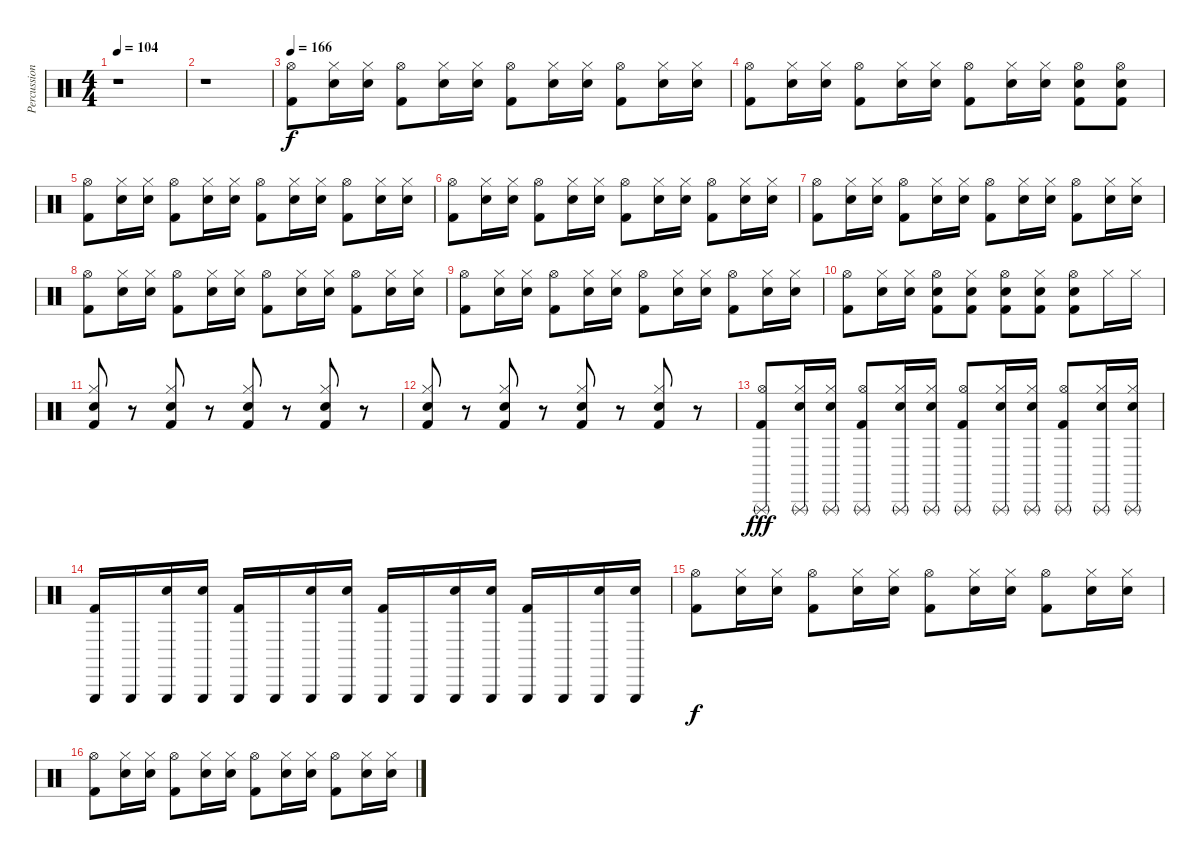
\track ("Percussion" "Percussion") {instrument percussion}
\staff {score}
\articulation defaults
\ts (4 4)
\tempo 104
\clef neutral
\ks c
r.1{dy f} |
r.1 |
\tempo 166
("Hi-Hat (open)" "Kick (hit) 2").8 ("Hi-Hat (closed)" "Snare (hit) 2").16 ("Hi-Hat (closed)" "Snare (hit) 2").16 ("Hi-Hat (open)" "Kick (hit) 2").8 ("Hi-Hat (closed)" "Snare (hit) 2").16 ("Hi-Hat (closed)" "Snare (hit) 2").16 ("Hi-Hat (open)" "Kick (hit) 2").8 ("Hi-Hat (closed)" "Snare (hit) 2").16 ("Hi-Hat (closed)" "Snare (hit) 2").16 ("Hi-Hat (open)" "Kick (hit) 2").8 ("Hi-Hat (closed)" "Snare (hit) 2").16 ("Hi-Hat (closed)" "Snare (hit) 2").16 |
("Hi-Hat (open)" "Kick (hit) 2").8 ("Hi-Hat (closed)" "Snare (hit) 2").16 ("Hi-Hat (closed)" "Snare (hit) 2").16 ("Hi-Hat (open)" "Kick (hit) 2").8 ("Hi-Hat (closed)" "Snare (hit) 2").16 ("Hi-Hat (closed)" "Snare (hit) 2").16 ("Hi-Hat (open)" "Kick (hit) 2").8 ("Hi-Hat (closed)" "Snare (hit) 2").16 ("Hi-Hat (closed)" "Snare (hit) 2").16 ("Hi-Hat (open)" "Snare (hit) 2" "Kick (hit) 2").8 ("Hi-Hat (open)" "Snare (hit) 2" "Kick (hit) 2").8 |
("Hi-Hat (open)" "Kick (hit) 2").8 ("Hi-Hat (closed)" "Snare (hit) 2").16 ("Hi-Hat (closed)" "Snare (hit) 2").16 ("Hi-Hat (open)" "Kick (hit) 2").8 ("Hi-Hat (closed)" "Snare (hit) 2").16 ("Hi-Hat (closed)" "Snare (hit) 2").16 ("Hi-Hat (open)" "Kick (hit) 2").8 ("Hi-Hat (closed)" "Snare (hit) 2").16 ("Hi-Hat (closed)" "Snare (hit) 2").16 ("Hi-Hat (open)" "Kick (hit) 2").8 ("Hi-Hat (closed)" "Snare (hit) 2").16 ("Hi-Hat (closed)" "Snare (hit) 2").16 |
("Hi-Hat (open)" "Kick (hit) 2").8 ("Hi-Hat (closed)" "Snare (hit) 2").16 ("Hi-Hat (closed)" "Snare (hit) 2").16 ("Hi-Hat (open)" "Kick (hit) 2").8 ("Hi-Hat (closed)" "Snare (hit) 2").16 ("Hi-Hat (closed)" "Snare (hit) 2").16 ("Hi-Hat (open)" "Kick (hit) 2").8 ("Hi-Hat (closed)" "Snare (hit) 2").16 ("Hi-Hat (closed)" "Snare (hit) 2").16 ("Hi-Hat (open)" "Kick (hit) 2").8 ("Hi-Hat (closed)" "Snare (hit) 2").16 ("Hi-Hat (closed)" "Snare (hit) 2").16 |
("Hi-Hat (open)" "Kick (hit) 2").8 ("Hi-Hat (closed)" "Snare (hit) 2").16 ("Hi-Hat (closed)" "Snare (hit) 2").16 ("Hi-Hat (open)" "Kick (hit) 2").8 ("Hi-Hat (closed)" "Snare (hit) 2").16 ("Hi-Hat (closed)" "Snare (hit) 2").16 ("Hi-Hat (open)" "Kick (hit) 2").8 ("Hi-Hat (closed)" "Snare (hit) 2").16 ("Hi-Hat (closed)" "Snare (hit) 2").16 ("Hi-Hat (open)" "Kick (hit) 2").8 ("Hi-Hat (closed)" "Snare (hit) 2").16 ("Hi-Hat (closed)" "Snare (hit) 2").16 |
("Hi-Hat (open)" "Kick (hit) 2").8 ("Hi-Hat (closed)" "Snare (hit) 2").16 ("Hi-Hat (closed)" "Snare (hit) 2").16 ("Hi-Hat (open)" "Kick (hit) 2").8 ("Hi-Hat (closed)" "Snare (hit) 2").16 ("Hi-Hat (closed)" "Snare (hit) 2").16 ("Hi-Hat (open)" "Kick (hit) 2").8 ("Hi-Hat (closed)" "Snare (hit) 2").16 ("Hi-Hat (closed)" "Snare (hit) 2").16 ("Hi-Hat (open)" "Kick (hit) 2").8 ("Hi-Hat (closed)" "Snare (hit) 2").16 ("Hi-Hat (closed)" "Snare (hit) 2").16 |
("Hi-Hat (open)" "Kick (hit) 2").8 ("Hi-Hat (closed)" "Snare (hit) 2").16 ("Hi-Hat (closed)" "Snare (hit) 2").16 ("Hi-Hat (open)" "Kick (hit) 2").8 ("Hi-Hat (closed)" "Snare (hit) 2").16 ("Hi-Hat (closed)" "Snare (hit) 2").16 ("Hi-Hat (open)" "Kick (hit) 2").8 ("Hi-Hat (closed)" "Snare (hit) 2").16 ("Hi-Hat (closed)" "Snare (hit) 2").16 ("Hi-Hat (open)" "Kick (hit) 2").8 ("Hi-Hat (closed)" "Snare (hit) 2").16 ("Hi-Hat (closed)" "Snare (hit) 2").16 |
("Hi-Hat (open)" "Kick (hit) 2").8 ("Hi-Hat (closed)" "Snare (hit) 2").16 ("Hi-Hat (closed)" "Snare (hit) 2").16 ("Hi-Hat (open)" "Snare (hit) 2" "Kick (hit) 2").8 ("Hi-Hat (closed)" "Snare (hit) 2" "Kick (hit) 2").8 ("Hi-Hat (open)" "Snare (hit) 2" "Kick (hit) 2").8 ("Hi-Hat (closed)" "Snare (hit) 2" "Kick (hit) 2").8 ("Hi-Hat (open)" "Snare (hit) 2" "Kick (hit) 2").8 "Hi-Hat (closed)".16 "Hi-Hat (closed)".16 |
("Hi-Hat (closed)" "Snare (hit) 2" "Kick (hit) 2").8 r.8 ("Hi-Hat (closed)" "Snare (hit) 2" "Kick (hit) 2").8 r.8 ("Hi-Hat (closed)" "Snare (hit) 2" "Kick (hit) 2").8 r.8 ("Hi-Hat (closed)" "Snare (hit) 2" "Kick (hit) 2").8 r.8 |
("Hi-Hat (closed)" "Snare (hit) 2" "Kick (hit) 2").8 r.8 ("Hi-Hat (closed)" "Snare (hit) 2" "Kick (hit) 2").8 r.8 ("Hi-Hat (closed)" "Snare (hit) 2" "Kick (hit) 2").8 r.8 ("Hi-Hat (closed)" "Snare (hit) 2" "Kick (hit) 2").8 r.8 |
("Hi-Hat (open)" "Triangle (rnute)" "Kick (hit) 2").8{dy fff} ("Hi-Hat (closed)" "Snare (hit) 2" "Triangle (rnute)").16 ("Hi-Hat (closed)" "Snare (hit) 2" "Triangle (rnute)").16 ("Hi-Hat (open)" "Triangle (rnute)" "Kick (hit) 2").8 ("Hi-Hat (closed)" "Snare (hit) 2" "Triangle (rnute)").16 ("Hi-Hat (closed)" "Snare (hit) 2" "Triangle (rnute)").16 ("Hi-Hat (open)" "Triangle (rnute)" "Kick (hit) 2").8 ("Hi-Hat (closed)" "Snare (hit) 2" "Triangle (rnute)").16 ("Hi-Hat (closed)" "Snare (hit) 2" "Triangle (rnute)").16 ("Hi-Hat (open)" "Triangle (rnute)" "Kick (hit) 2").8 ("Hi-Hat (closed)" "Snare (hit) 2" "Triangle (rnute)").16 ("Hi-Hat (closed)" "Snare (hit) 2" "Triangle (rnute)").16 |
("Triangle (hit)" "Kick (hit) 2").16 "Triangle (hit)".16 ("Triangle (hit)" "Snare (hit) 2").16 ("Triangle (hit)" "Snare (hit) 2").16 ("Triangle (hit)" "Kick (hit) 2").16 "Triangle (hit)".16 ("Triangle (hit)" "Snare (hit) 2").16 ("Triangle (hit)" "Snare (hit) 2").16 ("Triangle (hit)" "Kick (hit) 2").16 "Triangle (hit)".16 ("Triangle (hit)" "Snare (hit) 2").16 ("Triangle (hit)" "Snare (hit) 2").16 ("Triangle (hit)" "Kick (hit) 2").16 "Triangle (hit)".16 ("Triangle (hit)" "Snare (hit) 2").16 ("Triangle (hit)" "Snare (hit) 2").16 |
("Hi-Hat (open)" "Kick (hit) 2").8{dy f} ("Hi-Hat (closed)" "Snare (hit) 2").16 ("Hi-Hat (closed)" "Snare (hit) 2").16 ("Hi-Hat (open)" "Kick (hit) 2").8 ("Hi-Hat (closed)" "Snare (hit) 2").16 ("Hi-Hat (closed)" "Snare (hit) 2").16 ("Hi-Hat (open)" "Kick (hit) 2").8 ("Hi-Hat (closed)" "Snare (hit) 2").16 ("Hi-Hat (closed)" "Snare (hit) 2").16 ("Hi-Hat (open)" "Kick (hit) 2").8 ("Hi-Hat (closed)" "Snare (hit) 2").16 ("Hi-Hat (closed)" "Snare (hit) 2").16 |
("Hi-Hat (open)" "Kick (hit) 2").8 ("Hi-Hat (closed)" "Snare (hit) 2").16 ("Hi-Hat (closed)" "Snare (hit) 2").16 ("Hi-Hat (open)" "Kick (hit) 2").8 ("Hi-Hat (closed)" "Snare (hit) 2").16 ("Hi-Hat (closed)" "Snare (hit) 2").16 ("Hi-Hat (open)" "Kick (hit) 2").8 ("Hi-Hat (closed)" "Snare (hit) 2").16 ("Hi-Hat (closed)" "Snare (hit) 2").16 ("Hi-Hat (open)" "Kick (hit) 2").8 ("Hi-Hat (closed)" "Snare (hit) 2").16 ("Hi-Hat (closed)" "Snare (hit) 2").16
